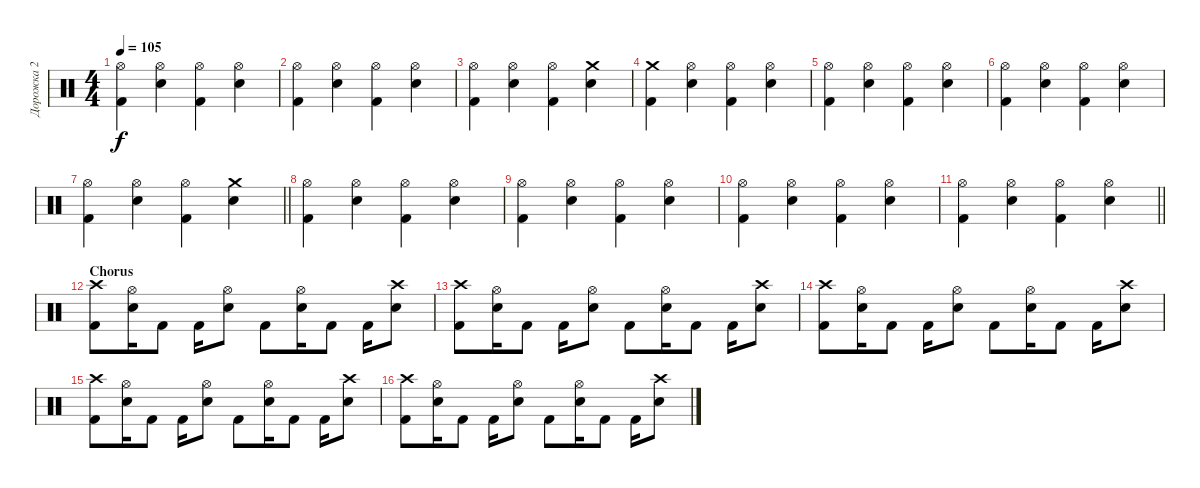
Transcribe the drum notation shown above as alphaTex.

\track ("Дорожка 2" "Дорожка 2") {instrument percussion}
\staff {score}
\articulation defaults
\ts (4 4)
\tempo 105
\clef neutral
\ks c
("Hi-Hat (open)" "Kick (hit) 2").4{dy f} ("Snare (hit) 2" "Hi-Hat (open)").4 ("Hi-Hat (open)" "Kick (hit) 2").4 ("Snare (hit) 2" "Hi-Hat (open)").4 |
("Hi-Hat (open)" "Kick (hit) 2").4 ("Snare (hit) 2" "Hi-Hat (open)").4 ("Hi-Hat (open)" "Kick (hit) 2").4 ("Snare (hit) 2" "Hi-Hat (open)").4 |
("Hi-Hat (open)" "Kick (hit) 2").4 ("Snare (hit) 2" "Hi-Hat (open)").4 ("Hi-Hat (open)" "Kick (hit) 2").4 ("Snare (hit) 2" "Crash medium (hit)").4 |
("Crash medium (hit)" "Kick (hit) 2").4 ("Snare (hit) 2" "Hi-Hat (open)").4 ("Hi-Hat (open)" "Kick (hit) 2").4 ("Snare (hit) 2" "Hi-Hat (open)").4 |
("Hi-Hat (open)" "Kick (hit) 2").4 ("Snare (hit) 2" "Hi-Hat (open)").4 ("Hi-Hat (open)" "Kick (hit) 2").4 ("Snare (hit) 2" "Hi-Hat (open)").4 |
("Hi-Hat (open)" "Kick (hit) 2").4 ("Snare (hit) 2" "Hi-Hat (open)").4 ("Hi-Hat (open)" "Kick (hit) 2").4 ("Snare (hit) 2" "Hi-Hat (open)").4 |
\barLineRight lightlight
("Hi-Hat (open)" "Kick (hit) 2").4 ("Snare (hit) 2" "Hi-Hat (open)").4 ("Hi-Hat (open)" "Kick (hit) 2").4 ("Snare (hit) 2" "Crash medium (hit)").4 |
("Hi-Hat (open)" "Kick (hit) 2").4 ("Snare (hit) 2" "Hi-Hat (open)").4 ("Hi-Hat (open)" "Kick (hit) 2").4 ("Snare (hit) 2" "Hi-Hat (open)").4 |
("Hi-Hat (open)" "Kick (hit) 2").4 ("Snare (hit) 2" "Hi-Hat (open)").4 ("Hi-Hat (open)" "Kick (hit) 2").4 ("Snare (hit) 2" "Hi-Hat (open)").4 |
("Hi-Hat (open)" "Kick (hit) 2").4 ("Snare (hit) 2" "Hi-Hat (open)").4 ("Hi-Hat (open)" "Kick (hit) 2").4 ("Snare (hit) 2" "Hi-Hat (open)").4 |
\barLineRight lightlight
("Hi-Hat (open)" "Kick (hit) 2").4 ("Snare (hit) 2" "Hi-Hat (open)").4 ("Hi-Hat (open)" "Kick (hit) 2").4 ("Snare (hit) 2" "Hi-Hat (open)").4 |
\section ("" "Chorus")
("Kick (hit) 2" "Crash high (hit)").8 ("Snare (hit) 2" "Hi-Hat (open)").16 "Kick (hit) 2".8 "Kick (hit) 2".16 ("Snare (hit) 2" "Hi-Hat (open)").8 "Kick (hit) 2".8 ("Snare (hit) 2" "Hi-Hat (open)").16 "Kick (hit) 2".8 "Kick (hit) 2".16 ("Snare (hit) 2" "Crash high (hit)").8 |
("Kick (hit) 2" "Crash high (hit)").8 ("Snare (hit) 2" "Hi-Hat (open)").16 "Kick (hit) 2".8 "Kick (hit) 2".16 ("Snare (hit) 2" "Hi-Hat (open)").8 "Kick (hit) 2".8 ("Snare (hit) 2" "Hi-Hat (open)").16 "Kick (hit) 2".8 "Kick (hit) 2".16 ("Snare (hit) 2" "Crash high (hit)").8 |
("Kick (hit) 2" "Crash high (hit)").8 ("Snare (hit) 2" "Hi-Hat (open)").16 "Kick (hit) 2".8 "Kick (hit) 2".16 ("Snare (hit) 2" "Hi-Hat (open)").8 "Kick (hit) 2".8 ("Snare (hit) 2" "Hi-Hat (open)").16 "Kick (hit) 2".8 "Kick (hit) 2".16 ("Snare (hit) 2" "Crash high (hit)").8 |
("Kick (hit) 2" "Crash high (hit)").8 ("Snare (hit) 2" "Hi-Hat (open)").16 "Kick (hit) 2".8 "Kick (hit) 2".16 ("Snare (hit) 2" "Hi-Hat (open)").8 "Kick (hit) 2".8 ("Snare (hit) 2" "Hi-Hat (open)").16 "Kick (hit) 2".8 "Kick (hit) 2".16 ("Snare (hit) 2" "Crash high (hit)").8 |
("Kick (hit) 2" "Crash high (hit)").8 ("Snare (hit) 2" "Hi-Hat (open)").16 "Kick (hit) 2".8 "Kick (hit) 2".16 ("Snare (hit) 2" "Hi-Hat (open)").8 "Kick (hit) 2".8 ("Snare (hit) 2" "Hi-Hat (open)").16 "Kick (hit) 2".8 "Kick (hit) 2".16 ("Snare (hit) 2" "Crash high (hit)").8
